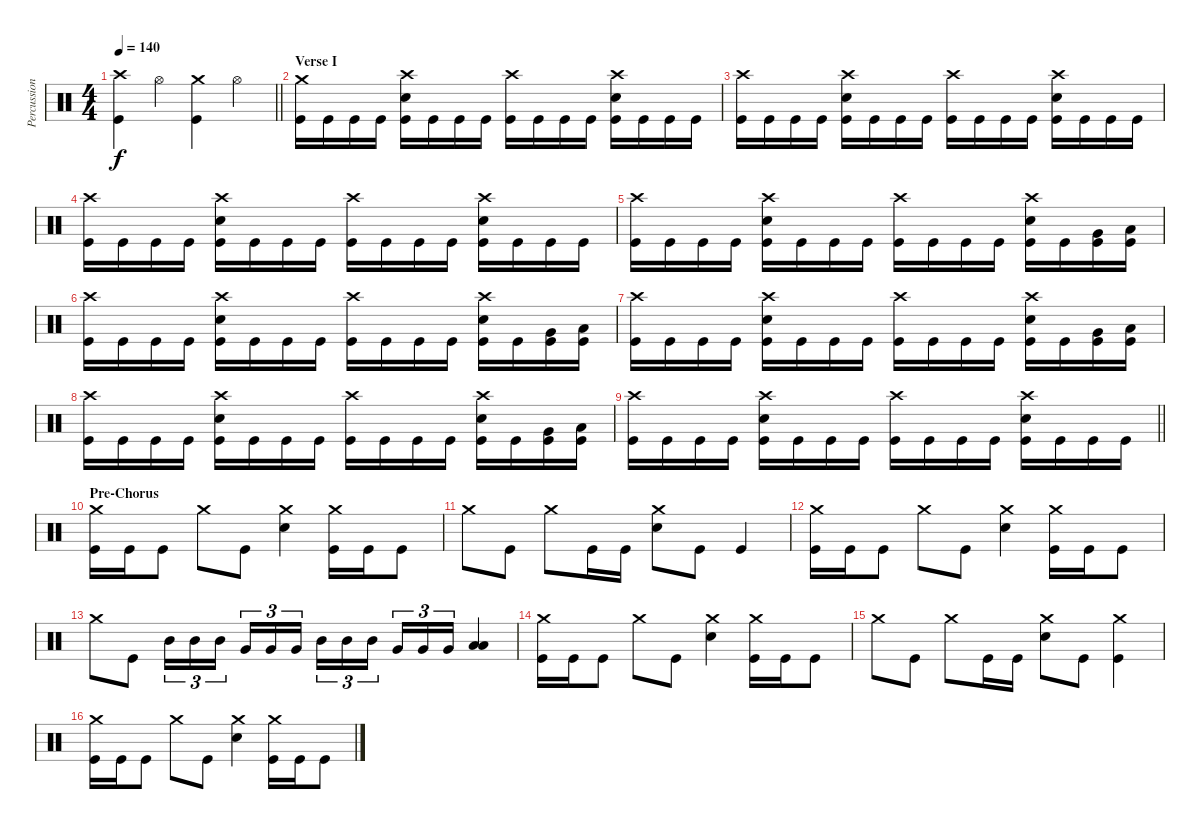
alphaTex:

\track ("Percussion" "Percussion") {instrument percussion}
\staff {score}
\articulation defaults
\ts (4 4)
\tempo 140
\clef neutral
\barLineRight lightlight
\ks c
("Crash high (hit)" "Kick (hit)").4{dy f} "Hi-Hat (open)".4 ("Crash medium (hit)" "Kick (hit)").4 "Hi-Hat (open)".4 |
\section ("" "Verse I")
("Crash medium (hit)" "Kick (hit)").16 "Kick (hit)".16 "Kick (hit)".16 "Kick (hit)".16 ("Crash high (hit)" "Electric Snare (hit)" "Kick (hit)").16 "Kick (hit)".16 "Kick (hit)".16 "Kick (hit)".16 ("Crash high (hit)" "Kick (hit)").16 "Kick (hit)".16 "Kick (hit)".16 "Kick (hit)".16 ("Crash high (hit)" "Electric Snare (hit)" "Kick (hit)").16 "Kick (hit)".16 "Kick (hit)".16 "Kick (hit)".16 |
("Crash high (hit)" "Kick (hit)").16 "Kick (hit)".16 "Kick (hit)".16 "Kick (hit)".16 ("Crash high (hit)" "Electric Snare (hit)" "Kick (hit)").16 "Kick (hit)".16 "Kick (hit)".16 "Kick (hit)".16 ("Crash high (hit)" "Kick (hit)").16 "Kick (hit)".16 "Kick (hit)".16 "Kick (hit)".16 ("Crash high (hit)" "Electric Snare (hit)" "Kick (hit)").16 "Kick (hit)".16 "Kick (hit)".16 "Kick (hit)".16 |
("Crash high (hit)" "Kick (hit)").16 "Kick (hit)".16 "Kick (hit)".16 "Kick (hit)".16 ("Crash high (hit)" "Electric Snare (hit)" "Kick (hit)").16 "Kick (hit)".16 "Kick (hit)".16 "Kick (hit)".16 ("Crash high (hit)" "Kick (hit)").16 "Kick (hit)".16 "Kick (hit)".16 "Kick (hit)".16 ("Crash high (hit)" "Electric Snare (hit)" "Kick (hit)").16 "Kick (hit)".16 "Kick (hit)".16 "Kick (hit)".16 |
("Crash high (hit)" "Kick (hit)").16 "Kick (hit)".16 "Kick (hit)".16 "Kick (hit)".16 ("Crash high (hit)" "Electric Snare (hit)" "Kick (hit)").16 "Kick (hit)".16 "Kick (hit)".16 "Kick (hit)".16 ("Crash high (hit)" "Kick (hit)").16 "Kick (hit)".16 "Kick (hit)".16 "Kick (hit)".16 ("Crash high (hit)" "Electric Snare (hit)" "Kick (hit)").16 "Kick (hit)".16 ("Very Low Tom (hit)" "Kick (hit)").16 ("Low Floor Tom (hit)" "Kick (hit)").16 |
("Crash high (hit)" "Kick (hit)").16 "Kick (hit)".16 "Kick (hit)".16 "Kick (hit)".16 ("Crash high (hit)" "Electric Snare (hit)" "Kick (hit)").16 "Kick (hit)".16 "Kick (hit)".16 "Kick (hit)".16 ("Crash high (hit)" "Kick (hit)").16 "Kick (hit)".16 "Kick (hit)".16 "Kick (hit)".16 ("Crash high (hit)" "Electric Snare (hit)" "Kick (hit)").16 "Kick (hit)".16 ("Very Low Tom (hit)" "Kick (hit)").16 ("Low Floor Tom (hit)" "Kick (hit)").16 |
("Crash high (hit)" "Kick (hit)").16 "Kick (hit)".16 "Kick (hit)".16 "Kick (hit)".16 ("Crash high (hit)" "Electric Snare (hit)" "Kick (hit)").16 "Kick (hit)".16 "Kick (hit)".16 "Kick (hit)".16 ("Crash high (hit)" "Kick (hit)").16 "Kick (hit)".16 "Kick (hit)".16 "Kick (hit)".16 ("Crash high (hit)" "Electric Snare (hit)" "Kick (hit)").16 "Kick (hit)".16 ("Very Low Tom (hit)" "Kick (hit)").16 ("Low Floor Tom (hit)" "Kick (hit)").16 |
("Crash high (hit)" "Kick (hit)").16 "Kick (hit)".16 "Kick (hit)".16 "Kick (hit)".16 ("Crash high (hit)" "Electric Snare (hit)" "Kick (hit)").16 "Kick (hit)".16 "Kick (hit)".16 "Kick (hit)".16 ("Crash high (hit)" "Kick (hit)").16 "Kick (hit)".16 "Kick (hit)".16 "Kick (hit)".16 ("Crash high (hit)" "Electric Snare (hit)" "Kick (hit)").16 "Kick (hit)".16 ("Very Low Tom (hit)" "Kick (hit)").16 ("Low Floor Tom (hit)" "Kick (hit)").16 |
\barLineRight lightlight
("Crash high (hit)" "Kick (hit)").16 "Kick (hit)".16 "Kick (hit)".16 "Kick (hit)".16 ("Crash high (hit)" "Electric Snare (hit)" "Kick (hit)").16 "Kick (hit)".16 "Kick (hit)".16 "Kick (hit)".16 ("Crash high (hit)" "Kick (hit)").16 "Kick (hit)".16 "Kick (hit)".16 "Kick (hit)".16 ("Crash high (hit)" "Electric Snare (hit)" "Kick (hit)").16 "Kick (hit)".16 "Kick (hit)".16 "Kick (hit)".16 |
\section ("" "Pre-Chorus")
("Crash medium (hit)" "Kick (hit)").16 "Kick (hit)".16 "Kick (hit)".8 "Crash medium (hit)".8 "Kick (hit)".8 ("Crash medium (hit)" "Electric Snare (hit)").4 ("Crash medium (hit)" "Kick (hit)").16 "Kick (hit)".16 "Kick (hit)".8 |
"Crash medium (hit)".8 "Kick (hit)".8 "Crash medium (hit)".8 "Kick (hit)".16 "Kick (hit)".16 ("Crash medium (hit)" "Electric Snare (hit)").8 "Kick (hit)".8 "Kick (hit)".4 |
("Crash medium (hit)" "Kick (hit)").16 "Kick (hit)".16 "Kick (hit)".8 "Crash medium (hit)".8 "Kick (hit)".8 ("Crash medium (hit)" "Electric Snare (hit)").4 ("Crash medium (hit)" "Kick (hit)").16 "Kick (hit)".16 "Kick (hit)".8 |
"Crash medium (hit)".8 "Kick (hit)".8 "Mid Tom (hit)".16{tu (3 2)} "Mid Tom (hit)".16{tu (3 2)} "Mid Tom (hit)".16{tu (3 2) beam splitsecondary} "Very Low Tom (hit)".16{tu (3 2)} "Very Low Tom (hit)".16{tu (3 2)} "Very Low Tom (hit)".16{tu (3 2)} "Mid Tom (hit)".16{tu (3 2)} "Mid Tom (hit)".16{tu (3 2)} "Mid Tom (hit)".16{tu (3 2) beam splitsecondary} "Very Low Tom (hit)".16{tu (3 2)} "Very Low Tom (hit)".16{tu (3 2)} "Very Low Tom (hit)".16{tu (3 2)} ("Low Floor Tom (hit)" "Low Floor Tom (hit)").4 |
("Crash medium (hit)" "Kick (hit)").16 "Kick (hit)".16 "Kick (hit)".8 "Crash medium (hit)".8 "Kick (hit)".8 ("Crash medium (hit)" "Electric Snare (hit)").4 ("Crash medium (hit)" "Kick (hit)").16 "Kick (hit)".16 "Kick (hit)".8 |
"Crash medium (hit)".8 "Kick (hit)".8 "Crash medium (hit)".8 "Kick (hit)".16 "Kick (hit)".16 ("Crash medium (hit)" "Electric Snare (hit)").8 "Kick (hit)".8 ("Crash medium (hit)" "Kick (hit)").4 |
("Crash medium (hit)" "Kick (hit)").16 "Kick (hit)".16 "Kick (hit)".8 "Crash medium (hit)".8 "Kick (hit)".8 ("Crash medium (hit)" "Electric Snare (hit)").4 ("Crash medium (hit)" "Kick (hit)").16 "Kick (hit)".16 "Kick (hit)".8
